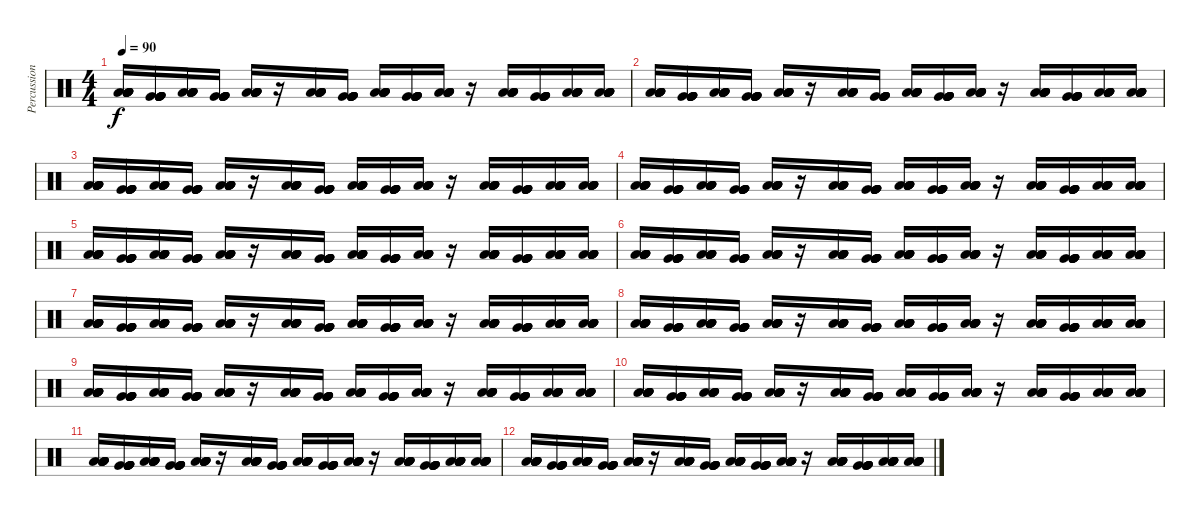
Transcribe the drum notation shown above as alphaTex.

\track ("Percussion 5" "Percussion") {instrument percussion}
\staff {score}
\articulation defaults
\ts (4 4)
\tempo 90
\clef neutral
\ks c
("Low Floor Tom (hit)" "Low Floor Tom (hit)" "Low Floor Tom (hit)" "Low Floor Tom (hit)" "Low Floor Tom (hit)" "Low Floor Tom (hit)").16{dy f} ("Very Low Tom (hit)" "Very Low Tom (hit)" "Very Low Tom (hit)" "Very Low Tom (hit)" "Very Low Tom (hit)" "Very Low Tom (hit)").16 ("Low Floor Tom (hit)" "Low Floor Tom (hit)" "Low Floor Tom (hit)" "Low Floor Tom (hit)" "Low Floor Tom (hit)" "Low Floor Tom (hit)").16 ("Very Low Tom (hit)" "Very Low Tom (hit)" "Very Low Tom (hit)" "Very Low Tom (hit)" "Very Low Tom (hit)" "Very Low Tom (hit)").16 ("Low Floor Tom (hit)" "Low Floor Tom (hit)" "Low Floor Tom (hit)" "Low Floor Tom (hit)" "Low Floor Tom (hit)" "Low Floor Tom (hit)").16 r.16 ("Low Floor Tom (hit)" "Low Floor Tom (hit)" "Low Floor Tom (hit)" "Low Floor Tom (hit)" "Low Floor Tom (hit)" "Low Floor Tom (hit)").16 ("Very Low Tom (hit)" "Very Low Tom (hit)" "Very Low Tom (hit)" "Very Low Tom (hit)" "Very Low Tom (hit)" "Very Low Tom (hit)").16 ("Low Floor Tom (hit)" "Low Floor Tom (hit)" "Low Floor Tom (hit)" "Low Floor Tom (hit)" "Low Floor Tom (hit)" "Low Floor Tom (hit)").16 ("Very Low Tom (hit)" "Very Low Tom (hit)" "Very Low Tom (hit)" "Very Low Tom (hit)" "Very Low Tom (hit)" "Very Low Tom (hit)").16 ("Low Floor Tom (hit)" "Low Floor Tom (hit)" "Low Floor Tom (hit)" "Low Floor Tom (hit)" "Low Floor Tom (hit)" "Low Floor Tom (hit)").16 r.16 ("Low Floor Tom (hit)" "Low Floor Tom (hit)" "Low Floor Tom (hit)" "Low Floor Tom (hit)" "Low Floor Tom (hit)" "Low Floor Tom (hit)").16 ("Very Low Tom (hit)" "Very Low Tom (hit)" "Very Low Tom (hit)" "Very Low Tom (hit)" "Very Low Tom (hit)" "Very Low Tom (hit)").16 ("Low Floor Tom (hit)" "Low Floor Tom (hit)" "Low Floor Tom (hit)" "Low Floor Tom (hit)" "Low Floor Tom (hit)" "Low Floor Tom (hit)").16 ("Low Floor Tom (hit)" "Low Floor Tom (hit)" "Low Floor Tom (hit)" "Low Floor Tom (hit)" "Low Floor Tom (hit)" "Low Floor Tom (hit)").16 |
("Low Floor Tom (hit)" "Low Floor Tom (hit)" "Low Floor Tom (hit)" "Low Floor Tom (hit)" "Low Floor Tom (hit)" "Low Floor Tom (hit)").16 ("Very Low Tom (hit)" "Very Low Tom (hit)" "Very Low Tom (hit)" "Very Low Tom (hit)" "Very Low Tom (hit)" "Very Low Tom (hit)").16 ("Low Floor Tom (hit)" "Low Floor Tom (hit)" "Low Floor Tom (hit)" "Low Floor Tom (hit)" "Low Floor Tom (hit)" "Low Floor Tom (hit)").16 ("Very Low Tom (hit)" "Very Low Tom (hit)" "Very Low Tom (hit)" "Very Low Tom (hit)" "Very Low Tom (hit)" "Very Low Tom (hit)").16 ("Low Floor Tom (hit)" "Low Floor Tom (hit)" "Low Floor Tom (hit)" "Low Floor Tom (hit)" "Low Floor Tom (hit)" "Low Floor Tom (hit)").16 r.16 ("Low Floor Tom (hit)" "Low Floor Tom (hit)" "Low Floor Tom (hit)" "Low Floor Tom (hit)" "Low Floor Tom (hit)" "Low Floor Tom (hit)").16 ("Very Low Tom (hit)" "Very Low Tom (hit)" "Very Low Tom (hit)" "Very Low Tom (hit)" "Very Low Tom (hit)" "Very Low Tom (hit)").16 ("Low Floor Tom (hit)" "Low Floor Tom (hit)" "Low Floor Tom (hit)" "Low Floor Tom (hit)" "Low Floor Tom (hit)" "Low Floor Tom (hit)").16 ("Very Low Tom (hit)" "Very Low Tom (hit)" "Very Low Tom (hit)" "Very Low Tom (hit)" "Very Low Tom (hit)" "Very Low Tom (hit)").16 ("Low Floor Tom (hit)" "Low Floor Tom (hit)" "Low Floor Tom (hit)" "Low Floor Tom (hit)" "Low Floor Tom (hit)" "Low Floor Tom (hit)").16 r.16 ("Low Floor Tom (hit)" "Low Floor Tom (hit)" "Low Floor Tom (hit)" "Low Floor Tom (hit)" "Low Floor Tom (hit)" "Low Floor Tom (hit)").16 ("Very Low Tom (hit)" "Very Low Tom (hit)" "Very Low Tom (hit)" "Very Low Tom (hit)" "Very Low Tom (hit)" "Very Low Tom (hit)").16 ("Low Floor Tom (hit)" "Low Floor Tom (hit)" "Low Floor Tom (hit)" "Low Floor Tom (hit)" "Low Floor Tom (hit)" "Low Floor Tom (hit)").16 ("Low Floor Tom (hit)" "Low Floor Tom (hit)" "Low Floor Tom (hit)" "Low Floor Tom (hit)" "Low Floor Tom (hit)" "Low Floor Tom (hit)").16 |
("Low Floor Tom (hit)" "Low Floor Tom (hit)" "Low Floor Tom (hit)" "Low Floor Tom (hit)" "Low Floor Tom (hit)" "Low Floor Tom (hit)").16 ("Very Low Tom (hit)" "Very Low Tom (hit)" "Very Low Tom (hit)" "Very Low Tom (hit)" "Very Low Tom (hit)" "Very Low Tom (hit)").16 ("Low Floor Tom (hit)" "Low Floor Tom (hit)" "Low Floor Tom (hit)" "Low Floor Tom (hit)" "Low Floor Tom (hit)" "Low Floor Tom (hit)").16 ("Very Low Tom (hit)" "Very Low Tom (hit)" "Very Low Tom (hit)" "Very Low Tom (hit)" "Very Low Tom (hit)" "Very Low Tom (hit)").16 ("Low Floor Tom (hit)" "Low Floor Tom (hit)" "Low Floor Tom (hit)" "Low Floor Tom (hit)" "Low Floor Tom (hit)" "Low Floor Tom (hit)").16 r.16 ("Low Floor Tom (hit)" "Low Floor Tom (hit)" "Low Floor Tom (hit)" "Low Floor Tom (hit)" "Low Floor Tom (hit)" "Low Floor Tom (hit)").16 ("Very Low Tom (hit)" "Very Low Tom (hit)" "Very Low Tom (hit)" "Very Low Tom (hit)" "Very Low Tom (hit)" "Very Low Tom (hit)").16 ("Low Floor Tom (hit)" "Low Floor Tom (hit)" "Low Floor Tom (hit)" "Low Floor Tom (hit)" "Low Floor Tom (hit)" "Low Floor Tom (hit)").16 ("Very Low Tom (hit)" "Very Low Tom (hit)" "Very Low Tom (hit)" "Very Low Tom (hit)" "Very Low Tom (hit)" "Very Low Tom (hit)").16 ("Low Floor Tom (hit)" "Low Floor Tom (hit)" "Low Floor Tom (hit)" "Low Floor Tom (hit)" "Low Floor Tom (hit)" "Low Floor Tom (hit)").16 r.16 ("Low Floor Tom (hit)" "Low Floor Tom (hit)" "Low Floor Tom (hit)" "Low Floor Tom (hit)" "Low Floor Tom (hit)" "Low Floor Tom (hit)").16 ("Very Low Tom (hit)" "Very Low Tom (hit)" "Very Low Tom (hit)" "Very Low Tom (hit)" "Very Low Tom (hit)" "Very Low Tom (hit)").16 ("Low Floor Tom (hit)" "Low Floor Tom (hit)" "Low Floor Tom (hit)" "Low Floor Tom (hit)" "Low Floor Tom (hit)" "Low Floor Tom (hit)").16 ("Low Floor Tom (hit)" "Low Floor Tom (hit)" "Low Floor Tom (hit)" "Low Floor Tom (hit)" "Low Floor Tom (hit)" "Low Floor Tom (hit)").16 |
("Low Floor Tom (hit)" "Low Floor Tom (hit)" "Low Floor Tom (hit)" "Low Floor Tom (hit)" "Low Floor Tom (hit)" "Low Floor Tom (hit)").16 ("Very Low Tom (hit)" "Very Low Tom (hit)" "Very Low Tom (hit)" "Very Low Tom (hit)" "Very Low Tom (hit)" "Very Low Tom (hit)").16 ("Low Floor Tom (hit)" "Low Floor Tom (hit)" "Low Floor Tom (hit)" "Low Floor Tom (hit)" "Low Floor Tom (hit)" "Low Floor Tom (hit)").16 ("Very Low Tom (hit)" "Very Low Tom (hit)" "Very Low Tom (hit)" "Very Low Tom (hit)" "Very Low Tom (hit)" "Very Low Tom (hit)").16 ("Low Floor Tom (hit)" "Low Floor Tom (hit)" "Low Floor Tom (hit)" "Low Floor Tom (hit)" "Low Floor Tom (hit)" "Low Floor Tom (hit)").16 r.16 ("Low Floor Tom (hit)" "Low Floor Tom (hit)" "Low Floor Tom (hit)" "Low Floor Tom (hit)" "Low Floor Tom (hit)" "Low Floor Tom (hit)").16 ("Very Low Tom (hit)" "Very Low Tom (hit)" "Very Low Tom (hit)" "Very Low Tom (hit)" "Very Low Tom (hit)" "Very Low Tom (hit)").16 ("Low Floor Tom (hit)" "Low Floor Tom (hit)" "Low Floor Tom (hit)" "Low Floor Tom (hit)" "Low Floor Tom (hit)" "Low Floor Tom (hit)").16 ("Very Low Tom (hit)" "Very Low Tom (hit)" "Very Low Tom (hit)" "Very Low Tom (hit)" "Very Low Tom (hit)" "Very Low Tom (hit)").16 ("Low Floor Tom (hit)" "Low Floor Tom (hit)" "Low Floor Tom (hit)" "Low Floor Tom (hit)" "Low Floor Tom (hit)" "Low Floor Tom (hit)").16 r.16 ("Low Floor Tom (hit)" "Low Floor Tom (hit)" "Low Floor Tom (hit)" "Low Floor Tom (hit)" "Low Floor Tom (hit)" "Low Floor Tom (hit)").16 ("Very Low Tom (hit)" "Very Low Tom (hit)" "Very Low Tom (hit)" "Very Low Tom (hit)" "Very Low Tom (hit)" "Very Low Tom (hit)").16 ("Low Floor Tom (hit)" "Low Floor Tom (hit)" "Low Floor Tom (hit)" "Low Floor Tom (hit)" "Low Floor Tom (hit)" "Low Floor Tom (hit)").16 ("Low Floor Tom (hit)" "Low Floor Tom (hit)" "Low Floor Tom (hit)" "Low Floor Tom (hit)" "Low Floor Tom (hit)" "Low Floor Tom (hit)").16 |
("Low Floor Tom (hit)" "Low Floor Tom (hit)" "Low Floor Tom (hit)" "Low Floor Tom (hit)" "Low Floor Tom (hit)" "Low Floor Tom (hit)").16 ("Very Low Tom (hit)" "Very Low Tom (hit)" "Very Low Tom (hit)" "Very Low Tom (hit)" "Very Low Tom (hit)" "Very Low Tom (hit)").16 ("Low Floor Tom (hit)" "Low Floor Tom (hit)" "Low Floor Tom (hit)" "Low Floor Tom (hit)" "Low Floor Tom (hit)" "Low Floor Tom (hit)").16 ("Very Low Tom (hit)" "Very Low Tom (hit)" "Very Low Tom (hit)" "Very Low Tom (hit)" "Very Low Tom (hit)" "Very Low Tom (hit)").16 ("Low Floor Tom (hit)" "Low Floor Tom (hit)" "Low Floor Tom (hit)" "Low Floor Tom (hit)" "Low Floor Tom (hit)" "Low Floor Tom (hit)").16 r.16 ("Low Floor Tom (hit)" "Low Floor Tom (hit)" "Low Floor Tom (hit)" "Low Floor Tom (hit)" "Low Floor Tom (hit)" "Low Floor Tom (hit)").16 ("Very Low Tom (hit)" "Very Low Tom (hit)" "Very Low Tom (hit)" "Very Low Tom (hit)" "Very Low Tom (hit)" "Very Low Tom (hit)").16 ("Low Floor Tom (hit)" "Low Floor Tom (hit)" "Low Floor Tom (hit)" "Low Floor Tom (hit)" "Low Floor Tom (hit)" "Low Floor Tom (hit)").16 ("Very Low Tom (hit)" "Very Low Tom (hit)" "Very Low Tom (hit)" "Very Low Tom (hit)" "Very Low Tom (hit)" "Very Low Tom (hit)").16 ("Low Floor Tom (hit)" "Low Floor Tom (hit)" "Low Floor Tom (hit)" "Low Floor Tom (hit)" "Low Floor Tom (hit)" "Low Floor Tom (hit)").16 r.16 ("Low Floor Tom (hit)" "Low Floor Tom (hit)" "Low Floor Tom (hit)" "Low Floor Tom (hit)" "Low Floor Tom (hit)" "Low Floor Tom (hit)").16 ("Very Low Tom (hit)" "Very Low Tom (hit)" "Very Low Tom (hit)" "Very Low Tom (hit)" "Very Low Tom (hit)" "Very Low Tom (hit)").16 ("Low Floor Tom (hit)" "Low Floor Tom (hit)" "Low Floor Tom (hit)" "Low Floor Tom (hit)" "Low Floor Tom (hit)" "Low Floor Tom (hit)").16 ("Low Floor Tom (hit)" "Low Floor Tom (hit)" "Low Floor Tom (hit)" "Low Floor Tom (hit)" "Low Floor Tom (hit)" "Low Floor Tom (hit)").16 |
("Low Floor Tom (hit)" "Low Floor Tom (hit)" "Low Floor Tom (hit)" "Low Floor Tom (hit)" "Low Floor Tom (hit)" "Low Floor Tom (hit)").16 ("Very Low Tom (hit)" "Very Low Tom (hit)" "Very Low Tom (hit)" "Very Low Tom (hit)" "Very Low Tom (hit)" "Very Low Tom (hit)").16 ("Low Floor Tom (hit)" "Low Floor Tom (hit)" "Low Floor Tom (hit)" "Low Floor Tom (hit)" "Low Floor Tom (hit)" "Low Floor Tom (hit)").16 ("Very Low Tom (hit)" "Very Low Tom (hit)" "Very Low Tom (hit)" "Very Low Tom (hit)" "Very Low Tom (hit)" "Very Low Tom (hit)").16 ("Low Floor Tom (hit)" "Low Floor Tom (hit)" "Low Floor Tom (hit)" "Low Floor Tom (hit)" "Low Floor Tom (hit)" "Low Floor Tom (hit)").16 r.16 ("Low Floor Tom (hit)" "Low Floor Tom (hit)" "Low Floor Tom (hit)" "Low Floor Tom (hit)" "Low Floor Tom (hit)" "Low Floor Tom (hit)").16 ("Very Low Tom (hit)" "Very Low Tom (hit)" "Very Low Tom (hit)" "Very Low Tom (hit)" "Very Low Tom (hit)" "Very Low Tom (hit)").16 ("Low Floor Tom (hit)" "Low Floor Tom (hit)" "Low Floor Tom (hit)" "Low Floor Tom (hit)" "Low Floor Tom (hit)" "Low Floor Tom (hit)").16 ("Very Low Tom (hit)" "Very Low Tom (hit)" "Very Low Tom (hit)" "Very Low Tom (hit)" "Very Low Tom (hit)" "Very Low Tom (hit)").16 ("Low Floor Tom (hit)" "Low Floor Tom (hit)" "Low Floor Tom (hit)" "Low Floor Tom (hit)" "Low Floor Tom (hit)" "Low Floor Tom (hit)").16 r.16 ("Low Floor Tom (hit)" "Low Floor Tom (hit)" "Low Floor Tom (hit)" "Low Floor Tom (hit)" "Low Floor Tom (hit)" "Low Floor Tom (hit)").16 ("Very Low Tom (hit)" "Very Low Tom (hit)" "Very Low Tom (hit)" "Very Low Tom (hit)" "Very Low Tom (hit)" "Very Low Tom (hit)").16 ("Low Floor Tom (hit)" "Low Floor Tom (hit)" "Low Floor Tom (hit)" "Low Floor Tom (hit)" "Low Floor Tom (hit)" "Low Floor Tom (hit)").16 ("Low Floor Tom (hit)" "Low Floor Tom (hit)" "Low Floor Tom (hit)" "Low Floor Tom (hit)" "Low Floor Tom (hit)" "Low Floor Tom (hit)").16 |
("Low Floor Tom (hit)" "Low Floor Tom (hit)" "Low Floor Tom (hit)" "Low Floor Tom (hit)" "Low Floor Tom (hit)" "Low Floor Tom (hit)").16 ("Very Low Tom (hit)" "Very Low Tom (hit)" "Very Low Tom (hit)" "Very Low Tom (hit)" "Very Low Tom (hit)" "Very Low Tom (hit)").16 ("Low Floor Tom (hit)" "Low Floor Tom (hit)" "Low Floor Tom (hit)" "Low Floor Tom (hit)" "Low Floor Tom (hit)" "Low Floor Tom (hit)").16 ("Very Low Tom (hit)" "Very Low Tom (hit)" "Very Low Tom (hit)" "Very Low Tom (hit)" "Very Low Tom (hit)" "Very Low Tom (hit)").16 ("Low Floor Tom (hit)" "Low Floor Tom (hit)" "Low Floor Tom (hit)" "Low Floor Tom (hit)" "Low Floor Tom (hit)" "Low Floor Tom (hit)").16 r.16 ("Low Floor Tom (hit)" "Low Floor Tom (hit)" "Low Floor Tom (hit)" "Low Floor Tom (hit)" "Low Floor Tom (hit)" "Low Floor Tom (hit)").16 ("Very Low Tom (hit)" "Very Low Tom (hit)" "Very Low Tom (hit)" "Very Low Tom (hit)" "Very Low Tom (hit)" "Very Low Tom (hit)").16 ("Low Floor Tom (hit)" "Low Floor Tom (hit)" "Low Floor Tom (hit)" "Low Floor Tom (hit)" "Low Floor Tom (hit)" "Low Floor Tom (hit)").16 ("Very Low Tom (hit)" "Very Low Tom (hit)" "Very Low Tom (hit)" "Very Low Tom (hit)" "Very Low Tom (hit)" "Very Low Tom (hit)").16 ("Low Floor Tom (hit)" "Low Floor Tom (hit)" "Low Floor Tom (hit)" "Low Floor Tom (hit)" "Low Floor Tom (hit)" "Low Floor Tom (hit)").16 r.16 ("Low Floor Tom (hit)" "Low Floor Tom (hit)" "Low Floor Tom (hit)" "Low Floor Tom (hit)" "Low Floor Tom (hit)" "Low Floor Tom (hit)").16 ("Very Low Tom (hit)" "Very Low Tom (hit)" "Very Low Tom (hit)" "Very Low Tom (hit)" "Very Low Tom (hit)" "Very Low Tom (hit)").16 ("Low Floor Tom (hit)" "Low Floor Tom (hit)" "Low Floor Tom (hit)" "Low Floor Tom (hit)" "Low Floor Tom (hit)" "Low Floor Tom (hit)").16 ("Low Floor Tom (hit)" "Low Floor Tom (hit)" "Low Floor Tom (hit)" "Low Floor Tom (hit)" "Low Floor Tom (hit)" "Low Floor Tom (hit)").16 |
("Low Floor Tom (hit)" "Low Floor Tom (hit)" "Low Floor Tom (hit)" "Low Floor Tom (hit)" "Low Floor Tom (hit)" "Low Floor Tom (hit)").16 ("Very Low Tom (hit)" "Very Low Tom (hit)" "Very Low Tom (hit)" "Very Low Tom (hit)" "Very Low Tom (hit)" "Very Low Tom (hit)").16 ("Low Floor Tom (hit)" "Low Floor Tom (hit)" "Low Floor Tom (hit)" "Low Floor Tom (hit)" "Low Floor Tom (hit)" "Low Floor Tom (hit)").16 ("Very Low Tom (hit)" "Very Low Tom (hit)" "Very Low Tom (hit)" "Very Low Tom (hit)" "Very Low Tom (hit)" "Very Low Tom (hit)").16 ("Low Floor Tom (hit)" "Low Floor Tom (hit)" "Low Floor Tom (hit)" "Low Floor Tom (hit)" "Low Floor Tom (hit)" "Low Floor Tom (hit)").16 r.16 ("Low Floor Tom (hit)" "Low Floor Tom (hit)" "Low Floor Tom (hit)" "Low Floor Tom (hit)" "Low Floor Tom (hit)" "Low Floor Tom (hit)").16 ("Very Low Tom (hit)" "Very Low Tom (hit)" "Very Low Tom (hit)" "Very Low Tom (hit)" "Very Low Tom (hit)" "Very Low Tom (hit)").16 ("Low Floor Tom (hit)" "Low Floor Tom (hit)" "Low Floor Tom (hit)" "Low Floor Tom (hit)" "Low Floor Tom (hit)" "Low Floor Tom (hit)").16 ("Very Low Tom (hit)" "Very Low Tom (hit)" "Very Low Tom (hit)" "Very Low Tom (hit)" "Very Low Tom (hit)" "Very Low Tom (hit)").16 ("Low Floor Tom (hit)" "Low Floor Tom (hit)" "Low Floor Tom (hit)" "Low Floor Tom (hit)" "Low Floor Tom (hit)" "Low Floor Tom (hit)").16 r.16 ("Low Floor Tom (hit)" "Low Floor Tom (hit)" "Low Floor Tom (hit)" "Low Floor Tom (hit)" "Low Floor Tom (hit)" "Low Floor Tom (hit)").16 ("Very Low Tom (hit)" "Very Low Tom (hit)" "Very Low Tom (hit)" "Very Low Tom (hit)" "Very Low Tom (hit)" "Very Low Tom (hit)").16 ("Low Floor Tom (hit)" "Low Floor Tom (hit)" "Low Floor Tom (hit)" "Low Floor Tom (hit)" "Low Floor Tom (hit)" "Low Floor Tom (hit)").16 ("Low Floor Tom (hit)" "Low Floor Tom (hit)" "Low Floor Tom (hit)" "Low Floor Tom (hit)" "Low Floor Tom (hit)" "Low Floor Tom (hit)").16 |
("Low Floor Tom (hit)" "Low Floor Tom (hit)" "Low Floor Tom (hit)" "Low Floor Tom (hit)" "Low Floor Tom (hit)" "Low Floor Tom (hit)").16 ("Very Low Tom (hit)" "Very Low Tom (hit)" "Very Low Tom (hit)" "Very Low Tom (hit)" "Very Low Tom (hit)" "Very Low Tom (hit)").16 ("Low Floor Tom (hit)" "Low Floor Tom (hit)" "Low Floor Tom (hit)" "Low Floor Tom (hit)" "Low Floor Tom (hit)" "Low Floor Tom (hit)").16 ("Very Low Tom (hit)" "Very Low Tom (hit)" "Very Low Tom (hit)" "Very Low Tom (hit)" "Very Low Tom (hit)" "Very Low Tom (hit)").16 ("Low Floor Tom (hit)" "Low Floor Tom (hit)" "Low Floor Tom (hit)" "Low Floor Tom (hit)" "Low Floor Tom (hit)" "Low Floor Tom (hit)").16 r.16 ("Low Floor Tom (hit)" "Low Floor Tom (hit)" "Low Floor Tom (hit)" "Low Floor Tom (hit)" "Low Floor Tom (hit)" "Low Floor Tom (hit)").16 ("Very Low Tom (hit)" "Very Low Tom (hit)" "Very Low Tom (hit)" "Very Low Tom (hit)" "Very Low Tom (hit)" "Very Low Tom (hit)").16 ("Low Floor Tom (hit)" "Low Floor Tom (hit)" "Low Floor Tom (hit)" "Low Floor Tom (hit)" "Low Floor Tom (hit)" "Low Floor Tom (hit)").16 ("Very Low Tom (hit)" "Very Low Tom (hit)" "Very Low Tom (hit)" "Very Low Tom (hit)" "Very Low Tom (hit)" "Very Low Tom (hit)").16 ("Low Floor Tom (hit)" "Low Floor Tom (hit)" "Low Floor Tom (hit)" "Low Floor Tom (hit)" "Low Floor Tom (hit)" "Low Floor Tom (hit)").16 r.16 ("Low Floor Tom (hit)" "Low Floor Tom (hit)" "Low Floor Tom (hit)" "Low Floor Tom (hit)" "Low Floor Tom (hit)" "Low Floor Tom (hit)").16 ("Very Low Tom (hit)" "Very Low Tom (hit)" "Very Low Tom (hit)" "Very Low Tom (hit)" "Very Low Tom (hit)" "Very Low Tom (hit)").16 ("Low Floor Tom (hit)" "Low Floor Tom (hit)" "Low Floor Tom (hit)" "Low Floor Tom (hit)" "Low Floor Tom (hit)" "Low Floor Tom (hit)").16 ("Low Floor Tom (hit)" "Low Floor Tom (hit)" "Low Floor Tom (hit)" "Low Floor Tom (hit)" "Low Floor Tom (hit)" "Low Floor Tom (hit)").16 |
("Low Floor Tom (hit)" "Low Floor Tom (hit)" "Low Floor Tom (hit)" "Low Floor Tom (hit)" "Low Floor Tom (hit)" "Low Floor Tom (hit)").16 ("Very Low Tom (hit)" "Very Low Tom (hit)" "Very Low Tom (hit)" "Very Low Tom (hit)" "Very Low Tom (hit)" "Very Low Tom (hit)").16 ("Low Floor Tom (hit)" "Low Floor Tom (hit)" "Low Floor Tom (hit)" "Low Floor Tom (hit)" "Low Floor Tom (hit)" "Low Floor Tom (hit)").16 ("Very Low Tom (hit)" "Very Low Tom (hit)" "Very Low Tom (hit)" "Very Low Tom (hit)" "Very Low Tom (hit)" "Very Low Tom (hit)").16 ("Low Floor Tom (hit)" "Low Floor Tom (hit)" "Low Floor Tom (hit)" "Low Floor Tom (hit)" "Low Floor Tom (hit)" "Low Floor Tom (hit)").16 r.16 ("Low Floor Tom (hit)" "Low Floor Tom (hit)" "Low Floor Tom (hit)" "Low Floor Tom (hit)" "Low Floor Tom (hit)" "Low Floor Tom (hit)").16 ("Very Low Tom (hit)" "Very Low Tom (hit)" "Very Low Tom (hit)" "Very Low Tom (hit)" "Very Low Tom (hit)" "Very Low Tom (hit)").16 ("Low Floor Tom (hit)" "Low Floor Tom (hit)" "Low Floor Tom (hit)" "Low Floor Tom (hit)" "Low Floor Tom (hit)" "Low Floor Tom (hit)").16 ("Very Low Tom (hit)" "Very Low Tom (hit)" "Very Low Tom (hit)" "Very Low Tom (hit)" "Very Low Tom (hit)" "Very Low Tom (hit)").16 ("Low Floor Tom (hit)" "Low Floor Tom (hit)" "Low Floor Tom (hit)" "Low Floor Tom (hit)" "Low Floor Tom (hit)" "Low Floor Tom (hit)").16 r.16 ("Low Floor Tom (hit)" "Low Floor Tom (hit)" "Low Floor Tom (hit)" "Low Floor Tom (hit)" "Low Floor Tom (hit)" "Low Floor Tom (hit)").16 ("Very Low Tom (hit)" "Very Low Tom (hit)" "Very Low Tom (hit)" "Very Low Tom (hit)" "Very Low Tom (hit)" "Very Low Tom (hit)").16 ("Low Floor Tom (hit)" "Low Floor Tom (hit)" "Low Floor Tom (hit)" "Low Floor Tom (hit)" "Low Floor Tom (hit)" "Low Floor Tom (hit)").16 ("Low Floor Tom (hit)" "Low Floor Tom (hit)" "Low Floor Tom (hit)" "Low Floor Tom (hit)" "Low Floor Tom (hit)" "Low Floor Tom (hit)").16 |
("Low Floor Tom (hit)" "Low Floor Tom (hit)" "Low Floor Tom (hit)" "Low Floor Tom (hit)" "Low Floor Tom (hit)" "Low Floor Tom (hit)").16 ("Very Low Tom (hit)" "Very Low Tom (hit)" "Very Low Tom (hit)" "Very Low Tom (hit)" "Very Low Tom (hit)" "Very Low Tom (hit)").16 ("Low Floor Tom (hit)" "Low Floor Tom (hit)" "Low Floor Tom (hit)" "Low Floor Tom (hit)" "Low Floor Tom (hit)" "Low Floor Tom (hit)").16 ("Very Low Tom (hit)" "Very Low Tom (hit)" "Very Low Tom (hit)" "Very Low Tom (hit)" "Very Low Tom (hit)" "Very Low Tom (hit)").16 ("Low Floor Tom (hit)" "Low Floor Tom (hit)" "Low Floor Tom (hit)" "Low Floor Tom (hit)" "Low Floor Tom (hit)" "Low Floor Tom (hit)").16 r.16 ("Low Floor Tom (hit)" "Low Floor Tom (hit)" "Low Floor Tom (hit)" "Low Floor Tom (hit)" "Low Floor Tom (hit)" "Low Floor Tom (hit)").16 ("Very Low Tom (hit)" "Very Low Tom (hit)" "Very Low Tom (hit)" "Very Low Tom (hit)" "Very Low Tom (hit)" "Very Low Tom (hit)").16 ("Low Floor Tom (hit)" "Low Floor Tom (hit)" "Low Floor Tom (hit)" "Low Floor Tom (hit)" "Low Floor Tom (hit)" "Low Floor Tom (hit)").16 ("Very Low Tom (hit)" "Very Low Tom (hit)" "Very Low Tom (hit)" "Very Low Tom (hit)" "Very Low Tom (hit)" "Very Low Tom (hit)").16 ("Low Floor Tom (hit)" "Low Floor Tom (hit)" "Low Floor Tom (hit)" "Low Floor Tom (hit)" "Low Floor Tom (hit)" "Low Floor Tom (hit)").16 r.16 ("Low Floor Tom (hit)" "Low Floor Tom (hit)" "Low Floor Tom (hit)" "Low Floor Tom (hit)" "Low Floor Tom (hit)" "Low Floor Tom (hit)").16 ("Very Low Tom (hit)" "Very Low Tom (hit)" "Very Low Tom (hit)" "Very Low Tom (hit)" "Very Low Tom (hit)" "Very Low Tom (hit)").16 ("Low Floor Tom (hit)" "Low Floor Tom (hit)" "Low Floor Tom (hit)" "Low Floor Tom (hit)" "Low Floor Tom (hit)" "Low Floor Tom (hit)").16 ("Low Floor Tom (hit)" "Low Floor Tom (hit)" "Low Floor Tom (hit)" "Low Floor Tom (hit)" "Low Floor Tom (hit)" "Low Floor Tom (hit)").16 |
("Low Floor Tom (hit)" "Low Floor Tom (hit)" "Low Floor Tom (hit)" "Low Floor Tom (hit)" "Low Floor Tom (hit)" "Low Floor Tom (hit)").16 ("Very Low Tom (hit)" "Very Low Tom (hit)" "Very Low Tom (hit)" "Very Low Tom (hit)" "Very Low Tom (hit)" "Very Low Tom (hit)").16 ("Low Floor Tom (hit)" "Low Floor Tom (hit)" "Low Floor Tom (hit)" "Low Floor Tom (hit)" "Low Floor Tom (hit)" "Low Floor Tom (hit)").16 ("Very Low Tom (hit)" "Very Low Tom (hit)" "Very Low Tom (hit)" "Very Low Tom (hit)" "Very Low Tom (hit)" "Very Low Tom (hit)").16 ("Low Floor Tom (hit)" "Low Floor Tom (hit)" "Low Floor Tom (hit)" "Low Floor Tom (hit)" "Low Floor Tom (hit)" "Low Floor Tom (hit)").16 r.16 ("Low Floor Tom (hit)" "Low Floor Tom (hit)" "Low Floor Tom (hit)" "Low Floor Tom (hit)" "Low Floor Tom (hit)" "Low Floor Tom (hit)").16 ("Very Low Tom (hit)" "Very Low Tom (hit)" "Very Low Tom (hit)" "Very Low Tom (hit)" "Very Low Tom (hit)" "Very Low Tom (hit)").16 ("Low Floor Tom (hit)" "Low Floor Tom (hit)" "Low Floor Tom (hit)" "Low Floor Tom (hit)" "Low Floor Tom (hit)" "Low Floor Tom (hit)").16 ("Very Low Tom (hit)" "Very Low Tom (hit)" "Very Low Tom (hit)" "Very Low Tom (hit)" "Very Low Tom (hit)" "Very Low Tom (hit)").16 ("Low Floor Tom (hit)" "Low Floor Tom (hit)" "Low Floor Tom (hit)" "Low Floor Tom (hit)" "Low Floor Tom (hit)" "Low Floor Tom (hit)").16 r.16 ("Low Floor Tom (hit)" "Low Floor Tom (hit)" "Low Floor Tom (hit)" "Low Floor Tom (hit)" "Low Floor Tom (hit)" "Low Floor Tom (hit)").16 ("Very Low Tom (hit)" "Very Low Tom (hit)" "Very Low Tom (hit)" "Very Low Tom (hit)" "Very Low Tom (hit)" "Very Low Tom (hit)").16 ("Low Floor Tom (hit)" "Low Floor Tom (hit)" "Low Floor Tom (hit)" "Low Floor Tom (hit)" "Low Floor Tom (hit)" "Low Floor Tom (hit)").16 ("Low Floor Tom (hit)" "Low Floor Tom (hit)" "Low Floor Tom (hit)" "Low Floor Tom (hit)" "Low Floor Tom (hit)" "Low Floor Tom (hit)").16
